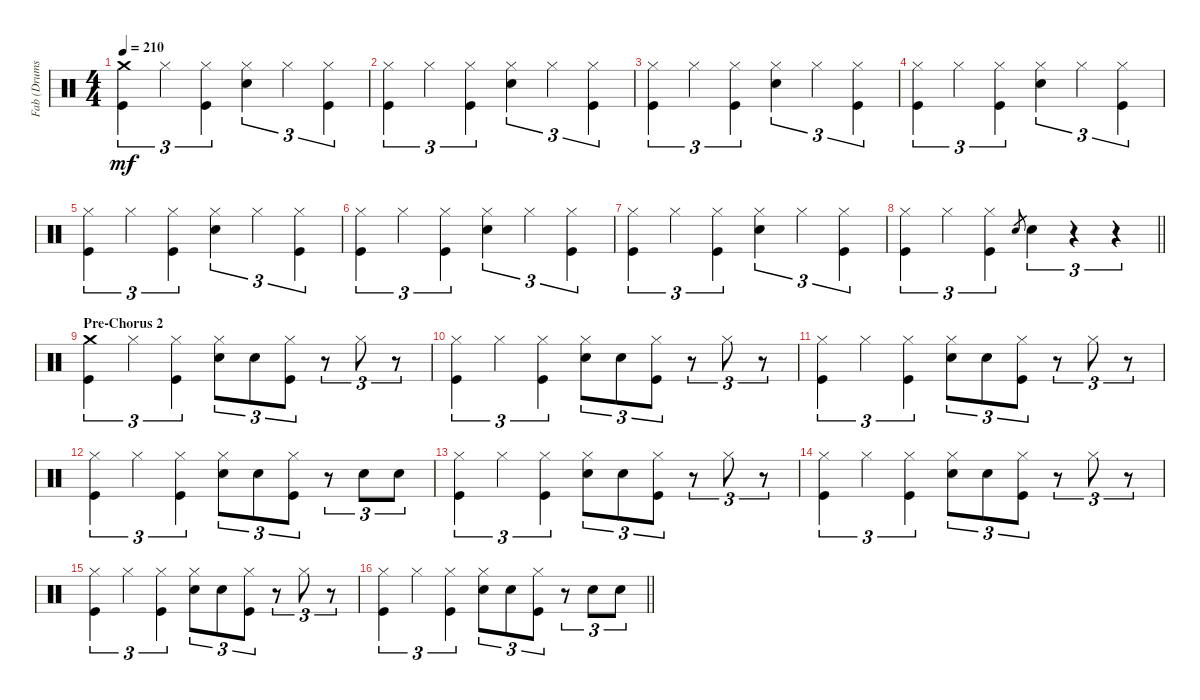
\track ("Fab (Drums)" "Fab (Drums") {instrument percussion}
\staff {score}
\articulation defaults
\ts (4 4)
\tempo 210
\clef neutral
\ks c
("Kick (hit)" "Crash medium (hit)").4{tu (3 2) dy mf} "Hi-Hat (closed)".4{tu (3 2)} ("Hi-Hat (closed)" "Kick (hit)").4{tu (3 2)} ("Hi-Hat (closed)" "Snare (hit) 2").4{tu (3 2)} "Hi-Hat (closed)".4{tu (3 2)} ("Hi-Hat (closed)" "Kick (hit)").4{tu (3 2)} |
("Kick (hit)" "Hi-Hat (closed)").4{tu (3 2)} "Hi-Hat (closed)".4{tu (3 2)} ("Hi-Hat (closed)" "Kick (hit)").4{tu (3 2)} ("Hi-Hat (closed)" "Snare (hit) 2").4{tu (3 2)} "Hi-Hat (closed)".4{tu (3 2)} ("Hi-Hat (closed)" "Kick (hit)").4{tu (3 2)} |
("Kick (hit)" "Hi-Hat (closed)").4{tu (3 2)} "Hi-Hat (closed)".4{tu (3 2)} ("Hi-Hat (closed)" "Kick (hit)").4{tu (3 2)} ("Hi-Hat (closed)" "Snare (hit) 2").4{tu (3 2)} "Hi-Hat (closed)".4{tu (3 2)} ("Hi-Hat (closed)" "Kick (hit)").4{tu (3 2)} |
("Kick (hit)" "Hi-Hat (closed)").4{tu (3 2)} "Hi-Hat (closed)".4{tu (3 2)} ("Hi-Hat (closed)" "Kick (hit)").4{tu (3 2)} ("Hi-Hat (closed)" "Snare (hit) 2").4{tu (3 2)} "Hi-Hat (closed)".4{tu (3 2)} ("Hi-Hat (closed)" "Kick (hit)").4{tu (3 2)} |
("Kick (hit)" "Hi-Hat (closed)").4{tu (3 2)} "Hi-Hat (closed)".4{tu (3 2)} ("Hi-Hat (closed)" "Kick (hit)").4{tu (3 2)} ("Hi-Hat (closed)" "Snare (hit) 2").4{tu (3 2)} "Hi-Hat (closed)".4{tu (3 2)} ("Hi-Hat (closed)" "Kick (hit)").4{tu (3 2)} |
("Kick (hit)" "Hi-Hat (closed)").4{tu (3 2)} "Hi-Hat (closed)".4{tu (3 2)} ("Hi-Hat (closed)" "Kick (hit)").4{tu (3 2)} ("Hi-Hat (closed)" "Snare (hit) 2").4{tu (3 2)} "Hi-Hat (closed)".4{tu (3 2)} ("Hi-Hat (closed)" "Kick (hit)").4{tu (3 2)} |
("Kick (hit)" "Hi-Hat (closed)").4{tu (3 2)} "Hi-Hat (closed)".4{tu (3 2)} ("Hi-Hat (closed)" "Kick (hit)").4{tu (3 2)} ("Hi-Hat (closed)" "Snare (hit) 2").4{tu (3 2)} "Hi-Hat (closed)".4{tu (3 2)} ("Hi-Hat (closed)" "Kick (hit)").4{tu (3 2)} |
\barLineRight lightlight
("Kick (hit)" "Hi-Hat (closed)").4{tu (3 2)} "Hi-Hat (closed)".4{tu (3 2)} ("Hi-Hat (closed)" "Kick (hit)").4{tu (3 2)} "Snare (hit)".8{gr} "Snare (hit) 2".4{tu (3 2)} r.4{tu (3 2)} r.4{tu (3 2)} |
\section ("" "Pre-Chorus 2")
("Kick (hit)" "Crash medium (hit)").4{tu (3 2)} "Hi-Hat (closed)".4{tu (3 2)} ("Hi-Hat (closed)" "Kick (hit)").4{tu (3 2)} ("Hi-Hat (closed)" "Snare (hit) 2").8{tu (3 2)} "Snare (hit) 2".8{tu (3 2)} ("Hi-Hat (closed)" "Kick (hit)").8{tu (3 2)} r.8{tu (3 2)} "Hi-Hat (closed)".8{tu (3 2)} r.8{tu (3 2)} |
("Kick (hit)" "Hi-Hat (closed)").4{tu (3 2)} "Hi-Hat (closed)".4{tu (3 2)} ("Hi-Hat (closed)" "Kick (hit)").4{tu (3 2)} ("Hi-Hat (closed)" "Snare (hit) 2").8{tu (3 2)} "Snare (hit) 2".8{tu (3 2)} ("Hi-Hat (closed)" "Kick (hit)").8{tu (3 2)} r.8{tu (3 2)} "Hi-Hat (closed)".8{tu (3 2)} r.8{tu (3 2)} |
("Kick (hit)" "Hi-Hat (closed)").4{tu (3 2)} "Hi-Hat (closed)".4{tu (3 2)} ("Hi-Hat (closed)" "Kick (hit)").4{tu (3 2)} ("Hi-Hat (closed)" "Snare (hit) 2").8{tu (3 2)} "Snare (hit) 2".8{tu (3 2)} ("Hi-Hat (closed)" "Kick (hit)").8{tu (3 2)} r.8{tu (3 2)} "Hi-Hat (closed)".8{tu (3 2)} r.8{tu (3 2)} |
("Kick (hit)" "Hi-Hat (closed)").4{tu (3 2)} "Hi-Hat (closed)".4{tu (3 2)} ("Hi-Hat (closed)" "Kick (hit)").4{tu (3 2)} ("Hi-Hat (closed)" "Snare (hit) 2").8{tu (3 2)} "Snare (hit) 2".8{tu (3 2)} ("Hi-Hat (closed)" "Kick (hit)").8{tu (3 2)} r.8{tu (3 2)} "Snare (hit) 2".8{tu (3 2)} "Snare (hit) 2".8{tu (3 2)} |
("Kick (hit)" "Hi-Hat (closed)").4{tu (3 2)} "Hi-Hat (closed)".4{tu (3 2)} ("Hi-Hat (closed)" "Kick (hit)").4{tu (3 2)} ("Hi-Hat (closed)" "Snare (hit) 2").8{tu (3 2)} "Snare (hit) 2".8{tu (3 2)} ("Hi-Hat (closed)" "Kick (hit)").8{tu (3 2)} r.8{tu (3 2)} "Hi-Hat (closed)".8{tu (3 2)} r.8{tu (3 2)} |
("Kick (hit)" "Hi-Hat (closed)").4{tu (3 2)} "Hi-Hat (closed)".4{tu (3 2)} ("Hi-Hat (closed)" "Kick (hit)").4{tu (3 2)} ("Hi-Hat (closed)" "Snare (hit) 2").8{tu (3 2)} "Snare (hit) 2".8{tu (3 2)} ("Hi-Hat (closed)" "Kick (hit)").8{tu (3 2)} r.8{tu (3 2)} "Hi-Hat (closed)".8{tu (3 2)} r.8{tu (3 2)} |
("Kick (hit)" "Hi-Hat (closed)").4{tu (3 2)} "Hi-Hat (closed)".4{tu (3 2)} ("Hi-Hat (closed)" "Kick (hit)").4{tu (3 2)} ("Hi-Hat (closed)" "Snare (hit) 2").8{tu (3 2)} "Snare (hit) 2".8{tu (3 2)} ("Hi-Hat (closed)" "Kick (hit)").8{tu (3 2)} r.8{tu (3 2)} "Hi-Hat (closed)".8{tu (3 2)} r.8{tu (3 2)} |
\barLineRight lightlight
("Kick (hit)" "Hi-Hat (closed)").4{tu (3 2)} "Hi-Hat (closed)".4{tu (3 2)} ("Hi-Hat (closed)" "Kick (hit)").4{tu (3 2)} ("Hi-Hat (closed)" "Snare (hit) 2").8{tu (3 2)} "Snare (hit) 2".8{tu (3 2)} ("Hi-Hat (closed)" "Kick (hit)").8{tu (3 2)} r.8{tu (3 2)} "Snare (hit) 2".8{tu (3 2)} "Snare (hit) 2".8{tu (3 2)}
